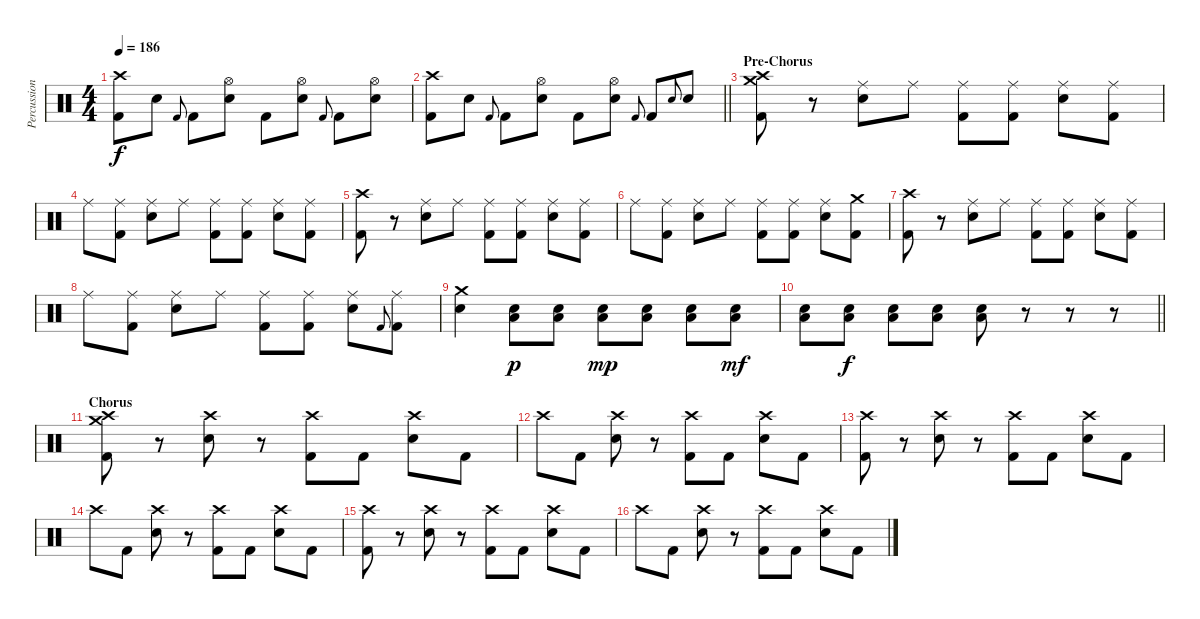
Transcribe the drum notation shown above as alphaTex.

\track ("Percussion" "Percussion") {instrument percussion}
\staff {score}
\articulation defaults
\ts (4 4)
\tempo 186
\clef neutral
\ks c
("Crash high (hit)" "Kick (hit) 2").8{dy f} "Electric Snare (hit)".8 "Kick (hit) 2".8{gr onbeat} "Kick (hit) 2".8 ("Hi-Hat (open)" "Electric Snare (hit)").8 "Kick (hit) 2".8 ("Hi-Hat (open)" "Electric Snare (hit)").8 "Kick (hit) 2".8{gr onbeat} "Kick (hit) 2".8 ("Hi-Hat (open)" "Electric Snare (hit)").8 |
\barLineRight lightlight
("Crash high (hit)" "Kick (hit) 2").8 "Electric Snare (hit)".8 "Kick (hit) 2".8{gr onbeat} "Kick (hit) 2".8 ("Hi-Hat (open)" "Electric Snare (hit)").8 "Kick (hit) 2".8 ("Hi-Hat (open)" "Electric Snare (hit)").8 "Kick (hit) 2".8{gr onbeat} "Kick (hit) 2".8 "Electric Snare (hit)".8{gr onbeat} "Electric Snare (hit)".8 |
\section ("" "Pre-Chorus")
("Crash high (hit)" "Crash medium (hit)" "Kick (hit) 2").8 r.8 ("Ride (middle)" "Electric Snare (hit)").8 "Ride (middle)".8 ("Ride (middle)" "Kick (hit) 2").8 ("Ride (middle)" "Kick (hit) 2").8 ("Ride (middle)" "Electric Snare (hit)").8 ("Ride (middle)" "Kick (hit) 2").8 |
"Ride (middle)".8 ("Ride (middle)" "Kick (hit) 2").8 ("Ride (middle)" "Electric Snare (hit)").8 "Ride (middle)".8 ("Ride (middle)" "Kick (hit) 2").8 ("Ride (middle)" "Kick (hit) 2").8 ("Ride (middle)" "Electric Snare (hit)").8 ("Ride (middle)" "Kick (hit) 2").8 |
("Crash high (hit)" "Kick (hit) 2").8 r.8 ("Ride (middle)" "Electric Snare (hit)").8 "Ride (middle)".8 ("Ride (middle)" "Kick (hit) 2").8 ("Ride (middle)" "Kick (hit) 2").8 ("Ride (middle)" "Electric Snare (hit)").8 ("Ride (middle)" "Kick (hit) 2").8 |
"Ride (middle)".8 ("Ride (middle)" "Kick (hit) 2").8 ("Ride (middle)" "Electric Snare (hit)").8 "Ride (middle)".8 ("Ride (middle)" "Kick (hit) 2").8 ("Ride (middle)" "Kick (hit) 2").8 ("Ride (middle)" "Electric Snare (hit)").8 ("Crash medium (hit)" "Kick (hit) 2").8 |
("Crash high (hit)" "Kick (hit) 2").8 r.8 ("Ride (middle)" "Electric Snare (hit)").8 "Ride (middle)".8 ("Ride (middle)" "Kick (hit) 2").8 ("Ride (middle)" "Kick (hit) 2").8 ("Ride (middle)" "Electric Snare (hit)").8 ("Ride (middle)" "Kick (hit) 2").8 |
"Ride (middle)".8 ("Ride (middle)" "Kick (hit) 2").8 ("Ride (middle)" "Electric Snare (hit)").8 "Ride (middle)".8 ("Ride (middle)" "Kick (hit) 2").8 ("Ride (middle)" "Kick (hit) 2").8 ("Ride (middle)" "Electric Snare (hit)").8 "Kick (hit) 2".8{gr onbeat} ("Ride (middle)" "Kick (hit) 2").8 |
("Crash medium (hit)" "Electric Snare (hit)").4 ("Electric Snare (hit)" "Low Floor Tom (hit)").8{dy p} ("Electric Snare (hit)" "Low Floor Tom (hit)").8 ("Electric Snare (hit)" "Low Floor Tom (hit)").8{dy mp} ("Electric Snare (hit)" "Low Floor Tom (hit)").8 ("Electric Snare (hit)" "Low Floor Tom (hit)").8 ("Electric Snare (hit)" "Low Floor Tom (hit)").8{dy mf} |
\barLineRight lightlight
("Electric Snare (hit)" "Low Floor Tom (hit)").8 ("Electric Snare (hit)" "Low Floor Tom (hit)").8{dy f} ("Electric Snare (hit)" "Low Floor Tom (hit)").8 ("Electric Snare (hit)" "Low Floor Tom (hit)").8 ("Electric Snare (hit)" "Low Floor Tom (hit)").8 r.8 r.8 r.8 |
\section ("" "Chorus")
("Crash high (hit)" "Crash medium (hit)" "Kick (hit) 2").8 r.8 ("Crash high (hit)" "Electric Snare (hit)").8 r.8 ("Crash high (hit)" "Kick (hit) 2").8 "Kick (hit) 2".8 ("Crash high (hit)" "Electric Snare (hit)").8 "Kick (hit) 2".8 |
"Crash high (hit)".8 "Kick (hit) 2".8 ("Crash high (hit)" "Electric Snare (hit)").8 r.8 ("Crash high (hit)" "Kick (hit) 2").8 "Kick (hit) 2".8 ("Crash high (hit)" "Electric Snare (hit)").8 "Kick (hit) 2".8 |
("Crash high (hit)" "Kick (hit) 2").8 r.8 ("Crash high (hit)" "Electric Snare (hit)").8 r.8 ("Crash high (hit)" "Kick (hit) 2").8 "Kick (hit) 2".8 ("Crash high (hit)" "Electric Snare (hit)").8 "Kick (hit) 2".8 |
"Crash high (hit)".8 "Kick (hit) 2".8 ("Crash high (hit)" "Electric Snare (hit)").8 r.8 ("Crash high (hit)" "Kick (hit) 2").8 "Kick (hit) 2".8 ("Crash high (hit)" "Electric Snare (hit)").8 "Kick (hit) 2".8 |
("Crash high (hit)" "Kick (hit) 2").8 r.8 ("Crash high (hit)" "Electric Snare (hit)").8 r.8 ("Crash high (hit)" "Kick (hit) 2").8 "Kick (hit) 2".8 ("Crash high (hit)" "Electric Snare (hit)").8 "Kick (hit) 2".8 |
"Crash high (hit)".8 "Kick (hit) 2".8 ("Crash high (hit)" "Electric Snare (hit)").8 r.8 ("Crash high (hit)" "Kick (hit) 2").8 "Kick (hit) 2".8 ("Crash high (hit)" "Electric Snare (hit)").8 "Kick (hit) 2".8
